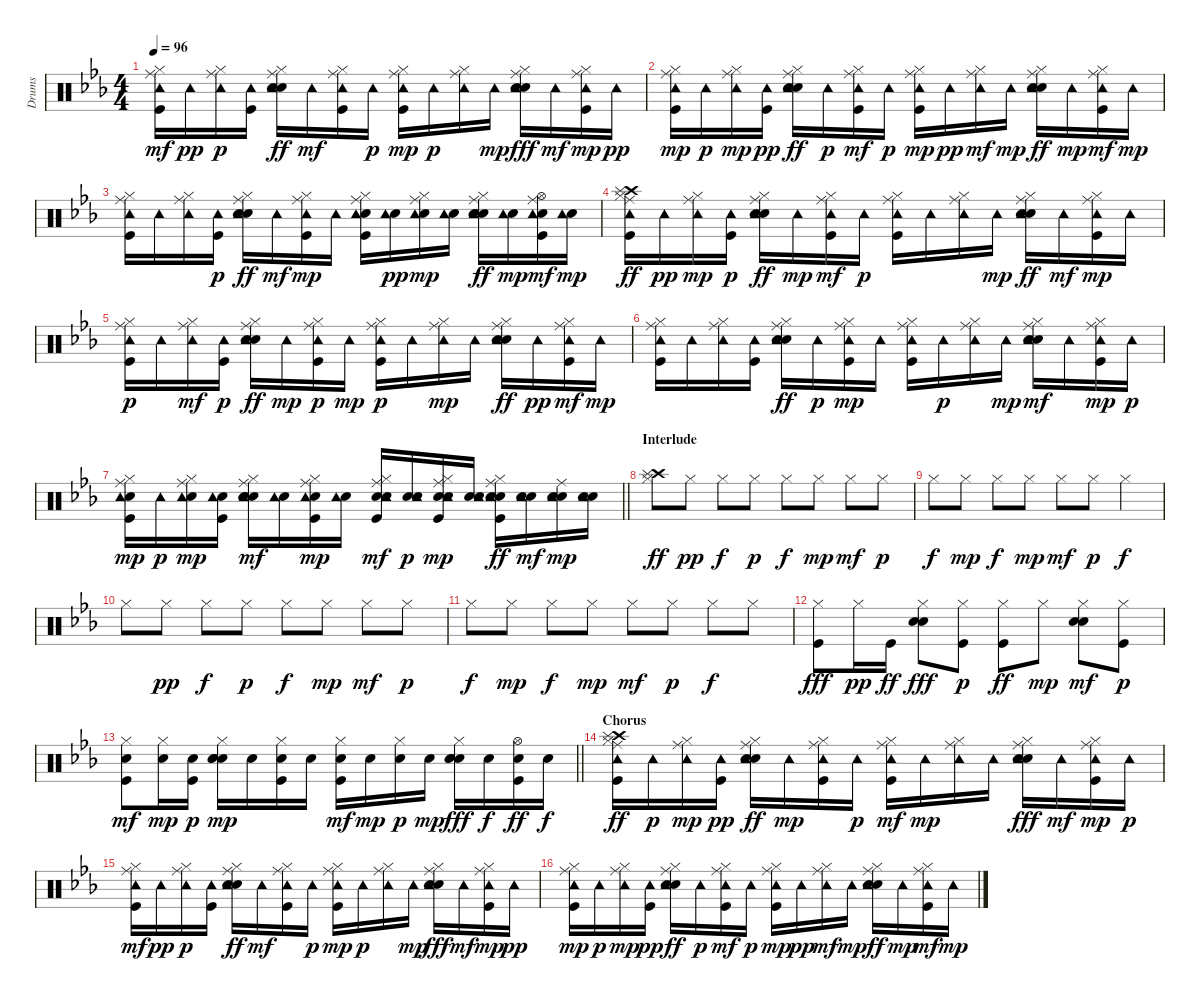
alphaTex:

\track ("Drums" "Drums") {instrument percussion}
\staff {score}
\articulation defaults
\ts (4 4)
\tempo 96
\clef neutral
\ks eb
("Kick (hit)" "Hi-Hat (closed)" "Ride (middle)" "Tambourine (hit)").16{dy mf} "Tambourine (hit)".16{dy pp} ("Hi-Hat (closed)" "Ride (middle)" "Tambourine (hit)").16{dy p} ("Kick (hit)" "Tambourine (hit)").16 ("Snare (hit) 2" "Hand Clap (hit)" "Hi-Hat (closed)" "Ride (middle)" "Tambourine (hit)").16{dy ff} "Tambourine (hit)".16{dy mf} ("Kick (hit)" "Hi-Hat (closed)" "Ride (middle)" "Tambourine (hit)").16 "Tambourine (hit)".16{dy p} ("Kick (hit)" "Hi-Hat (closed)" "Ride (middle)" "Tambourine (hit)").16{dy mp} "Tambourine (hit)".16{dy p} ("Hi-Hat (closed)" "Ride (middle)" "Tambourine (hit)").16 "Tambourine (hit)".16{dy mp} ("Snare (hit) 2" "Hand Clap (hit)" "Hi-Hat (closed)" "Ride (middle)" "Tambourine (hit)").16{dy fff} "Tambourine (hit)".16{dy mf} ("Kick (hit)" "Hi-Hat (closed)" "Ride (middle)" "Tambourine (hit)").16{dy mp} "Tambourine (hit)".16{dy pp} |
("Kick (hit)" "Hi-Hat (closed)" "Ride (middle)" "Tambourine (hit)").16{dy mp} "Tambourine (hit)".16{dy p} ("Hi-Hat (closed)" "Ride (middle)" "Tambourine (hit)").16{dy mp} ("Kick (hit)" "Tambourine (hit)").16{dy pp} ("Snare (hit) 2" "Hand Clap (hit)" "Hi-Hat (closed)" "Ride (middle)" "Tambourine (hit)").16{dy ff} "Tambourine (hit)".16{dy p} ("Kick (hit)" "Hi-Hat (closed)" "Ride (middle)" "Tambourine (hit)").16{dy mf} "Tambourine (hit)".16{dy p} ("Kick (hit)" "Hi-Hat (closed)" "Ride (middle)" "Tambourine (hit)").16{dy mp} "Tambourine (hit)".16{dy pp} ("Hi-Hat (closed)" "Ride (middle)" "Tambourine (hit)").16{dy mf} "Tambourine (hit)".16{dy mp} ("Snare (hit) 2" "Hand Clap (hit)" "Hi-Hat (closed)" "Ride (middle)" "Tambourine (hit)").16{dy ff} "Tambourine (hit)".16{dy mp} ("Kick (hit)" "Hi-Hat (closed)" "Ride (middle)" "Tambourine (hit)").16{dy mf} "Tambourine (hit)".16{dy mp} |
("Kick (hit)" "Hi-Hat (closed)" "Ride (middle)" "Tambourine (hit)").16 "Tambourine (hit)".16 ("Hi-Hat (closed)" "Ride (middle)" "Tambourine (hit)").16 ("Kick (hit)" "Tambourine (hit)").16{dy p} ("Snare (hit) 2" "Hand Clap (hit)" "Hi-Hat (closed)" "Ride (middle)" "Tambourine (hit)").16{dy ff} "Tambourine (hit)".16{dy mf} ("Kick (hit)" "Hi-Hat (closed)" "Ride (middle)" "Tambourine (hit)").16{dy mp} "Tambourine (hit)".16 ("Kick (hit)" "Electric Snare (hit)" "Hi-Hat (closed)" "Ride (middle)" "Tambourine (hit)").16 ("Electric Snare (hit)" "Tambourine (hit)").16{dy pp} ("Electric Snare (hit)" "Hi-Hat (closed)" "Ride (middle)" "Tambourine (hit)").16{dy mp} ("Electric Snare (hit)" "Tambourine (hit)").16 ("Snare (hit) 2" "Hand Clap (hit)" "Electric Snare (hit)" "Hi-Hat (closed)" "Ride (middle)" "Tambourine (hit)").16{dy ff} ("Electric Snare (hit)" "Tambourine (hit)").16{dy mp} ("Kick (hit)" "Electric Snare (hit)" "Hi-Hat (open)" "Ride (middle)" "Tambourine (hit)").16{dy mf} ("Electric Snare (hit)" "Tambourine (hit)").16{dy mp} |
("Kick (hit)" "Hi-Hat (closed)" "Crash high (hit)" "Ride (middle)" "Tambourine (hit)" "Splash (hit)").16{dy ff} "Tambourine (hit)".16{dy pp} ("Hi-Hat (closed)" "Ride (middle)" "Tambourine (hit)").16{dy mp} ("Kick (hit)" "Tambourine (hit)").16{dy p} ("Snare (hit) 2" "Hand Clap (hit)" "Hi-Hat (closed)" "Ride (middle)" "Tambourine (hit)").16{dy ff} "Tambourine (hit)".16{dy mp} ("Kick (hit)" "Hi-Hat (closed)" "Ride (middle)" "Tambourine (hit)").16{dy mf} "Tambourine (hit)".16{dy p} ("Kick (hit)" "Hi-Hat (closed)" "Ride (middle)" "Tambourine (hit)").16 "Tambourine (hit)".16 ("Hi-Hat (closed)" "Ride (middle)" "Tambourine (hit)").16 "Tambourine (hit)".16{dy mp} ("Snare (hit) 2" "Hand Clap (hit)" "Hi-Hat (closed)" "Ride (middle)" "Tambourine (hit)").16{dy ff} "Tambourine (hit)".16{dy mf} ("Kick (hit)" "Hi-Hat (closed)" "Ride (middle)" "Tambourine (hit)").16{dy mp} "Tambourine (hit)".16 |
("Kick (hit)" "Hi-Hat (closed)" "Ride (middle)" "Tambourine (hit)").16{dy p} "Tambourine (hit)".16 ("Hi-Hat (closed)" "Ride (middle)" "Tambourine (hit)").16{dy mf} ("Kick (hit)" "Tambourine (hit)").16{dy p} ("Snare (hit) 2" "Hand Clap (hit)" "Hi-Hat (closed)" "Ride (middle)" "Tambourine (hit)").16{dy ff} "Tambourine (hit)".16{dy mp} ("Kick (hit)" "Hi-Hat (closed)" "Ride (middle)" "Tambourine (hit)").16{dy p} "Tambourine (hit)".16{dy mp} ("Kick (hit)" "Hi-Hat (closed)" "Ride (middle)" "Tambourine (hit)").16{dy p} "Tambourine (hit)".16 ("Hi-Hat (closed)" "Ride (middle)" "Tambourine (hit)").16{dy mp} "Tambourine (hit)".16 ("Snare (hit) 2" "Hand Clap (hit)" "Hi-Hat (closed)" "Ride (middle)" "Tambourine (hit)").16{dy ff} "Tambourine (hit)".16{dy pp} ("Kick (hit)" "Hi-Hat (closed)" "Ride (middle)" "Tambourine (hit)").16{dy mf} "Tambourine (hit)".16{dy mp} |
("Kick (hit)" "Hi-Hat (closed)" "Ride (middle)" "Tambourine (hit)").16 "Tambourine (hit)".16 ("Hi-Hat (closed)" "Ride (middle)" "Tambourine (hit)").16 ("Kick (hit)" "Tambourine (hit)").16 ("Snare (hit) 2" "Hand Clap (hit)" "Hi-Hat (closed)" "Ride (middle)" "Tambourine (hit)").16{dy ff} "Tambourine (hit)".16{dy p} ("Kick (hit)" "Hi-Hat (closed)" "Ride (middle)" "Tambourine (hit)").16{dy mp} "Tambourine (hit)".16 ("Kick (hit)" "Hi-Hat (closed)" "Ride (middle)" "Tambourine (hit)").16 "Tambourine (hit)".16{dy p} ("Hi-Hat (closed)" "Ride (middle)" "Tambourine (hit)").16 "Tambourine (hit)".16{dy mp} ("Snare (hit) 2" "Hand Clap (hit)" "Hi-Hat (closed)" "Ride (middle)" "Tambourine (hit)").16{dy mf} "Tambourine (hit)".16 ("Kick (hit)" "Hi-Hat (closed)" "Ride (middle)" "Tambourine (hit)").16{dy mp} "Tambourine (hit)".16{dy p} |
\barLineRight lightlight
("Kick (hit)" "Electric Snare (hit)" "Hi-Hat (closed)" "Ride (middle)" "Tambourine (hit)").16{dy mp} "Tambourine (hit)".16{dy p} ("Electric Snare (hit)" "Hi-Hat (closed)" "Ride (middle)" "Tambourine (hit)").16{dy mp} ("Kick (hit)" "Electric Snare (hit)" "Tambourine (hit)").16 ("Snare (hit) 2" "Hand Clap (hit)" "Electric Snare (hit)" "Hi-Hat (closed)" "Ride (middle)" "Tambourine (hit)").16{dy mf} ("Electric Snare (hit)" "Tambourine (hit)").16 ("Kick (hit)" "Electric Snare (hit)" "Hi-Hat (closed)" "Ride (middle)" "Tambourine (hit)").16{dy mp} ("Electric Snare (hit)" "Tambourine (hit)").16 ("Kick (hit)" "Snare (hit) 2" "Electric Snare (hit)" "Hi-Hat (closed)" "Ride (middle)" "Tambourine (hit)").16{dy mf} ("Snare (hit) 2" "Electric Snare (hit)" "Tambourine (hit)").16{dy p} ("Kick (hit)" "Snare (hit) 2" "Electric Snare (hit)" "Hi-Hat (closed)" "Ride (middle)" "Tambourine (hit)").16{dy mp} ("Snare (hit) 2" "Electric Snare (hit)" "Tambourine (hit)").16 ("Kick (hit)" "Snare (hit) 2" "Electric Snare (hit)" "Hi-Hat (closed)" "Ride (middle)" "Tambourine (hit)").16{dy ff} ("Snare (hit) 2" "Electric Snare (hit)" "Tambourine (hit)").16{dy mf} ("Snare (hit) 2" "Electric Snare (hit)" "Ride (middle)" "Tambourine (hit)").16{dy mp} ("Snare (hit) 2" "Electric Snare (hit)" "Tambourine (hit)").16 |
\section ("" "Interlude")
("Hi-Hat (closed)" "Crash high (hit)" "Splash (hit)").8{dy ff} "Hi-Hat (closed)".8{dy pp} "Hi-Hat (closed)".8{dy f} "Hi-Hat (closed)".8{dy p} "Hi-Hat (closed)".8{dy f} "Hi-Hat (closed)".8{dy mp} "Hi-Hat (closed)".8{dy mf} "Hi-Hat (closed)".8{dy p} |
"Hi-Hat (closed)".8{dy f} "Hi-Hat (closed)".8{dy mp} "Hi-Hat (closed)".8{dy f} "Hi-Hat (closed)".8{dy mp} "Hi-Hat (closed)".8{dy mf} "Hi-Hat (closed)".8{dy p} "Hi-Hat (closed)".4{dy f} |
"Hi-Hat (closed)".8 "Hi-Hat (closed)".8{dy pp} "Hi-Hat (closed)".8{dy f} "Hi-Hat (closed)".8{dy p} "Hi-Hat (closed)".8{dy f} "Hi-Hat (closed)".8{dy mp} "Hi-Hat (closed)".8{dy mf} "Hi-Hat (closed)".8{dy p} |
"Hi-Hat (closed)".8{dy f} "Hi-Hat (closed)".8{dy mp} "Hi-Hat (closed)".8{dy f} "Hi-Hat (closed)".8{dy mp} "Hi-Hat (closed)".8{dy mf} "Hi-Hat (closed)".8{dy p} "Hi-Hat (closed)".8{dy f} "Hi-Hat (closed)".8 |
("Kick (hit)" "Hi-Hat (closed)").8{dy fff} "Hi-Hat (closed)".16{dy pp} "Kick (hit)".16{dy ff} ("Snare (hit) 2" "Hand Clap (hit)" "Hi-Hat (closed)").8{dy fff} ("Kick (hit)" "Hi-Hat (closed)").8{dy p} ("Kick (hit)" "Hi-Hat (closed)").8{dy ff} "Hi-Hat (closed)".8{dy mp} ("Snare (hit) 2" "Hand Clap (hit)" "Hi-Hat (closed)").8{dy mf} ("Kick (hit)" "Hi-Hat (closed)").8{dy p} |
\barLineRight lightlight
("Kick (hit)" "Electric Snare (hit)" "Hi-Hat (closed)").8{dy mf} ("Electric Snare (hit)" "Hi-Hat (closed)").16{dy mp} ("Kick (hit)" "Electric Snare (hit)").16{dy p} ("Snare (hit) 2" "Hand Clap (hit)" "Electric Snare (hit)" "Hi-Hat (closed)").16{dy mp} "Electric Snare (hit)".16 ("Kick (hit)" "Electric Snare (hit)" "Hi-Hat (closed)").16 "Electric Snare (hit)".16 ("Kick (hit)" "Electric Snare (hit)" "Hi-Hat (closed)").16{dy mf} "Electric Snare (hit)".16{dy mp} ("Electric Snare (hit)" "Hi-Hat (closed)").16{dy p} "Electric Snare (hit)".16{dy mp} ("Snare (hit) 2" "Hand Clap (hit)" "Electric Snare (hit)" "Hi-Hat (closed)").16{dy fff} "Electric Snare (hit)".16{dy f} ("Kick (hit)" "Electric Snare (hit)" "Hi-Hat (open)").16{dy ff} "Electric Snare (hit)".16{dy f} |
\section ("" "Chorus")
("Kick (hit)" "Hi-Hat (closed)" "Crash high (hit)" "Ride (middle)" "Tambourine (hit)" "Splash (hit)").16{dy ff} "Tambourine (hit)".16{dy p} ("Hi-Hat (closed)" "Ride (middle)" "Tambourine (hit)").16{dy mp} ("Kick (hit)" "Tambourine (hit)").16{dy pp} ("Snare (hit) 2" "Hand Clap (hit)" "Hi-Hat (closed)" "Ride (middle)" "Tambourine (hit)").16{dy ff} "Tambourine (hit)".16{dy mp} ("Kick (hit)" "Hi-Hat (closed)" "Ride (middle)" "Tambourine (hit)").16 "Tambourine (hit)".16{dy p} ("Kick (hit)" "Hi-Hat (closed)" "Ride (middle)" "Tambourine (hit)").16{dy mf} "Tambourine (hit)".16{dy mp} ("Hi-Hat (closed)" "Ride (middle)" "Tambourine (hit)").16 "Tambourine (hit)".16 ("Snare (hit) 2" "Hand Clap (hit)" "Hi-Hat (closed)" "Ride (middle)" "Tambourine (hit)").16{dy fff} "Tambourine (hit)".16{dy mf} ("Kick (hit)" "Hi-Hat (closed)" "Ride (middle)" "Tambourine (hit)").16{dy mp} "Tambourine (hit)".16{dy p} |
("Kick (hit)" "Hi-Hat (closed)" "Ride (middle)" "Tambourine (hit)").16{dy mf} "Tambourine (hit)".16{dy pp} ("Hi-Hat (closed)" "Ride (middle)" "Tambourine (hit)").16{dy p} ("Kick (hit)" "Tambourine (hit)").16 ("Snare (hit) 2" "Hand Clap (hit)" "Hi-Hat (closed)" "Ride (middle)" "Tambourine (hit)").16{dy ff} "Tambourine (hit)".16{dy mf} ("Kick (hit)" "Hi-Hat (closed)" "Ride (middle)" "Tambourine (hit)").16 "Tambourine (hit)".16{dy p} ("Kick (hit)" "Hi-Hat (closed)" "Ride (middle)" "Tambourine (hit)").16{dy mp} "Tambourine (hit)".16{dy p} ("Hi-Hat (closed)" "Ride (middle)" "Tambourine (hit)").16 "Tambourine (hit)".16{dy mp} ("Snare (hit) 2" "Hand Clap (hit)" "Hi-Hat (closed)" "Ride (middle)" "Tambourine (hit)").16{dy fff} "Tambourine (hit)".16{dy mf} ("Kick (hit)" "Hi-Hat (closed)" "Ride (middle)" "Tambourine (hit)").16{dy mp} "Tambourine (hit)".16{dy pp} |
("Kick (hit)" "Hi-Hat (closed)" "Ride (middle)" "Tambourine (hit)").16{dy mp} "Tambourine (hit)".16{dy p} ("Hi-Hat (closed)" "Ride (middle)" "Tambourine (hit)").16{dy mp} ("Kick (hit)" "Tambourine (hit)").16{dy pp} ("Snare (hit) 2" "Hand Clap (hit)" "Hi-Hat (closed)" "Ride (middle)" "Tambourine (hit)").16{dy ff} "Tambourine (hit)".16{dy p} ("Kick (hit)" "Hi-Hat (closed)" "Ride (middle)" "Tambourine (hit)").16{dy mf} "Tambourine (hit)".16{dy p} ("Kick (hit)" "Hi-Hat (closed)" "Ride (middle)" "Tambourine (hit)").16{dy mp} "Tambourine (hit)".16{dy pp} ("Hi-Hat (closed)" "Ride (middle)" "Tambourine (hit)").16{dy mf} "Tambourine (hit)".16{dy mp} ("Snare (hit) 2" "Hand Clap (hit)" "Hi-Hat (closed)" "Ride (middle)" "Tambourine (hit)").16{dy ff} "Tambourine (hit)".16{dy mp} ("Kick (hit)" "Hi-Hat (closed)" "Ride (middle)" "Tambourine (hit)").16{dy mf} "Tambourine (hit)".16{dy mp}
